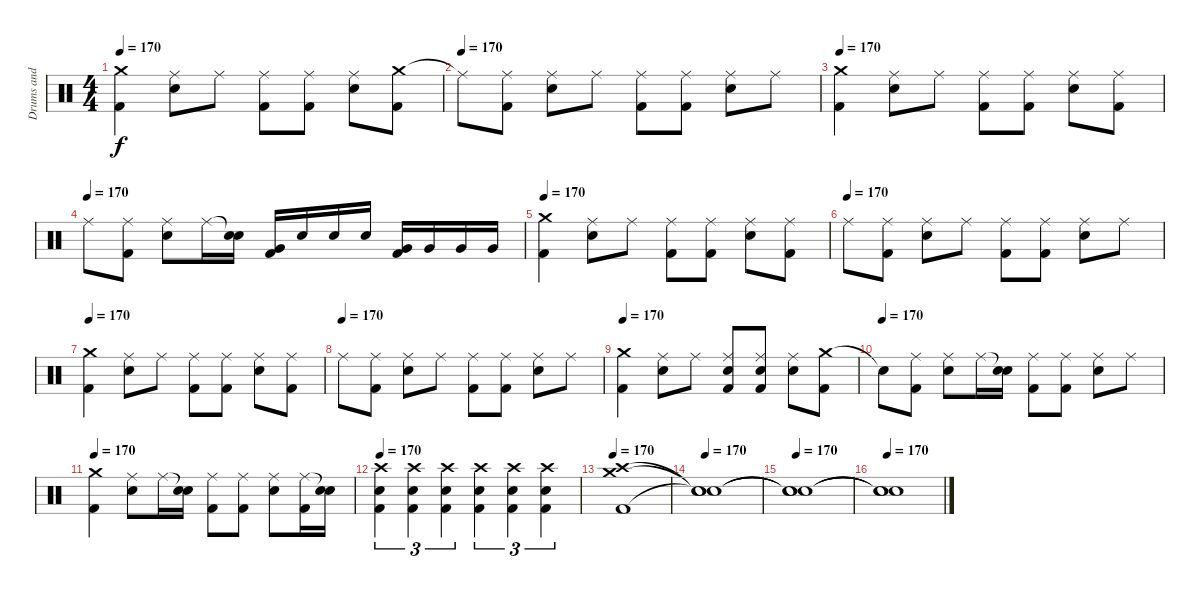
\track ("Drums and Percussion" "Drums and ") {instrument percussion}
\staff {score}
\articulation defaults
\ts (4 4)
\tempo 170
\clef neutral
\ks c
("Crash medium (hit)" "Kick (hit) 2").4{dy f} ("Ride (middle)" "Electric Snare (hit)").8 "Ride (middle)".8 ("Ride (middle)" "Kick (hit) 2").8 ("Ride (middle)" "Kick (hit) 2").8 ("Ride (middle)" "Electric Snare (hit)").8 ("Crash medium (hit)" "Kick (hit) 2").8 |
\tempo (170)
"Ride (middle)"{t}.8 ("Ride (middle)" "Kick (hit) 2").8 ("Ride (middle)" "Electric Snare (hit)").8 "Ride (middle)".8 ("Ride (middle)" "Kick (hit) 2").8 ("Ride (middle)" "Kick (hit) 2").8 ("Ride (middle)" "Electric Snare (hit)").8 "Ride (middle)".8 |
\tempo 170
("Crash medium (hit)" "Kick (hit) 2").4 ("Ride (middle)" "Electric Snare (hit)").8 "Ride (middle)".8 ("Ride (middle)" "Kick (hit) 2").8 ("Ride (middle)" "Kick (hit) 2").8 ("Ride (middle)" "Electric Snare (hit)").8 ("Ride (middle)" "Kick (hit) 2").8 |
\tempo (170)
"Ride (middle)".8 ("Ride (middle)" "Kick (hit) 2").8 ("Ride (middle)" "Electric Snare (hit)").8 "Ride (middle)".16 ("Snare (hit)"{t} "Electric Snare (hit)").16 ("Very Low Tom (hit)" "Kick (hit) 2").16 "Electric Snare (hit)".16 "Electric Snare (hit)".16 "Electric Snare (hit)".16 ("Very Low Tom (hit)" "Kick (hit) 2").16 "Very Low Tom (hit)".16 "Very Low Tom (hit)".16 "Very Low Tom (hit)".16 |
\tempo 170
("Crash medium (hit)" "Kick (hit) 2").4 ("Ride (middle)" "Electric Snare (hit)").8 "Ride (middle)".8 ("Ride (middle)" "Kick (hit) 2").8 ("Ride (middle)" "Kick (hit) 2").8 ("Ride (middle)" "Electric Snare (hit)").8 ("Ride (middle)" "Kick (hit) 2").8 |
\tempo (170)
"Ride (middle)".8 ("Ride (middle)" "Kick (hit) 2").8 ("Ride (middle)" "Electric Snare (hit)").8 "Ride (middle)".8 ("Ride (middle)" "Kick (hit) 2").8 ("Ride (middle)" "Kick (hit) 2").8 ("Ride (middle)" "Electric Snare (hit)").8 "Ride (middle)".8 |
\tempo 170
("Crash medium (hit)" "Kick (hit) 2").4 ("Ride (middle)" "Electric Snare (hit)").8 "Ride (middle)".8 ("Ride (middle)" "Kick (hit) 2").8 ("Ride (middle)" "Kick (hit) 2").8 ("Ride (middle)" "Electric Snare (hit)").8 ("Ride (middle)" "Kick (hit) 2").8 |
\tempo (170)
"Ride (middle)".8 ("Ride (middle)" "Kick (hit) 2").8 ("Ride (middle)" "Electric Snare (hit)").8 "Ride (middle)".8 ("Ride (middle)" "Kick (hit) 2").8 ("Ride (middle)" "Kick (hit) 2").8 ("Ride (middle)" "Electric Snare (hit)").8 "Ride (middle)".8 |
\tempo 170
("Crash medium (hit)" "Kick (hit) 2").4 ("Ride (middle)" "Electric Snare (hit)").8 "Ride (middle)".8 ("Ride (middle)" "Electric Snare (hit)" "Kick (hit) 2").8 ("Ride (middle)" "Electric Snare (hit)" "Kick (hit) 2").8 ("Ride (middle)" "Electric Snare (hit)").8 ("Crash medium (hit)" "Kick (hit) 2").8 |
\tempo (170)
"Snare (hit)"{t}.8 ("Ride (middle)" "Kick (hit) 2").8 ("Ride (middle)" "Electric Snare (hit)").8 "Ride (middle)".16 ("Snare (hit)"{t} "Electric Snare (hit)").16 ("Ride (middle)" "Kick (hit) 2").8 ("Ride (middle)" "Kick (hit) 2").8 ("Ride (middle)" "Electric Snare (hit)").8 "Ride (middle)".8 |
\tempo 170
("Crash medium (hit)" "Kick (hit) 2").4 ("Ride (middle)" "Electric Snare (hit)").8 "Ride (middle)".16 ("Snare (hit)"{t} "Electric Snare (hit)").16 ("Ride (middle)" "Kick (hit) 2").8 ("Ride (middle)" "Kick (hit) 2").8 ("Ride (middle)" "Electric Snare (hit)").8 ("Ride (middle)" "Kick (hit) 2").16 ("Snare (hit)"{t} "Electric Snare (hit)").16 |
\tempo 170
("Crash high (hit)" "Electric Snare (hit)" "Kick (hit) 2").4{tu (3 2)} ("Crash high (hit)" "Electric Snare (hit)" "Kick (hit) 2").4{tu (3 2)} ("Crash high (hit)" "Electric Snare (hit)" "Kick (hit) 2").4{tu (3 2)} ("Crash high (hit)" "Electric Snare (hit)" "Kick (hit) 2").4{tu (3 2)} ("Crash high (hit)" "Electric Snare (hit)" "Kick (hit) 2").4{tu (3 2)} ("Crash high (hit)" "Electric Snare (hit)" "Kick (hit) 2").4{tu (3 2)} |
\tempo 170
("Crash medium (hit)" "Crash high (hit)" "Kick (hit) 2").1{volume 0} |
\tempo 170
("Snare (hit)"{t} "Snare (hit)"{t} "Snare (hit)"{t}).1 |
\tempo 170
("Snare (hit)"{t} "Snare (hit)"{t} "Snare (hit)"{t}).1 |
\tempo 170
("Snare (hit)"{t} "Snare (hit)"{t} "Snare (hit)"{t}).1
